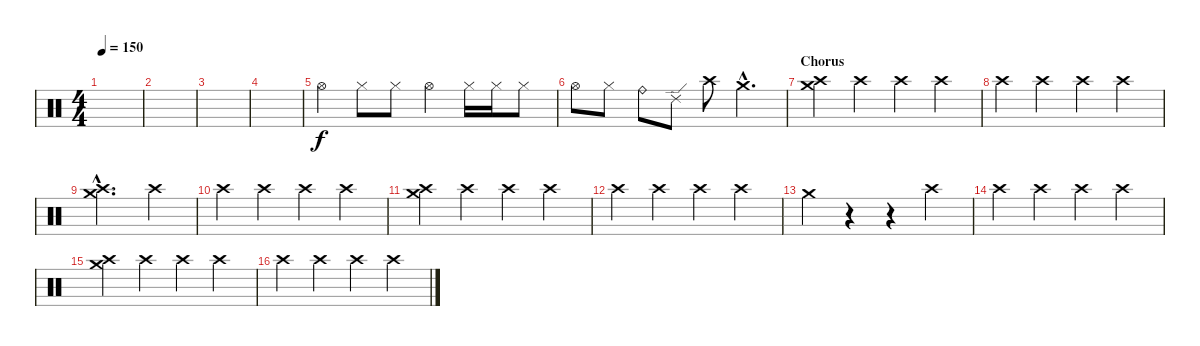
\track "" {instrument percussion}
\staff {score}
\articulation defaults
\ts (4 4)
\tempo 150
\clef neutral
\ks c
|
|
|
|
"Hi-Hat (open)".4 "Hi-Hat (closed)".8 "Hi-Hat (closed)".8 "Hi-Hat (open)".4 "Hi-Hat (closed)".16 "Hi-Hat (closed)".16 "Hi-Hat (closed)".8 |
"Hi-Hat (open)".8 "Hi-Hat (closed)".8 "Ride (bell)".8 "Ride (edge) 2".8 "Crash high (hit)".8 "Crash medium (hit)"{hac}.4{d} |
\section ("" "Chorus")
("Crash medium (hit)" "Crash high (hit)").4 "Crash high (hit)".4 "Crash high (hit)".4 "Crash high (hit)".4 |
"Crash high (hit)".4 "Crash high (hit)".4 "Crash high (hit)".4 "Crash high (hit)".4 |
("Crash medium (hit)"{hac} "Crash high (hit)"{hac}).2{d} "Crash high (hit)".4 |
"Crash high (hit)".4 "Crash high (hit)".4 "Crash high (hit)".4 "Crash high (hit)".4 |
("Crash medium (hit)" "Crash high (hit)").4 "Crash high (hit)".4 "Crash high (hit)".4 "Crash high (hit)".4 |
"Crash high (hit)".4 "Crash high (hit)".4 "Crash high (hit)".4 "Crash high (hit)".4 |
"Crash medium (hit)".4 r.4 r.4 "Crash high (hit)".4 |
"Crash high (hit)".4 "Crash high (hit)".4 "Crash high (hit)".4 "Crash high (hit)".4 |
("Crash medium (hit)" "Crash high (hit)").4 "Crash high (hit)".4 "Crash high (hit)".4 "Crash high (hit)".4 |
"Crash high (hit)".4 "Crash high (hit)".4 "Crash high (hit)".4 "Crash high (hit)".4
